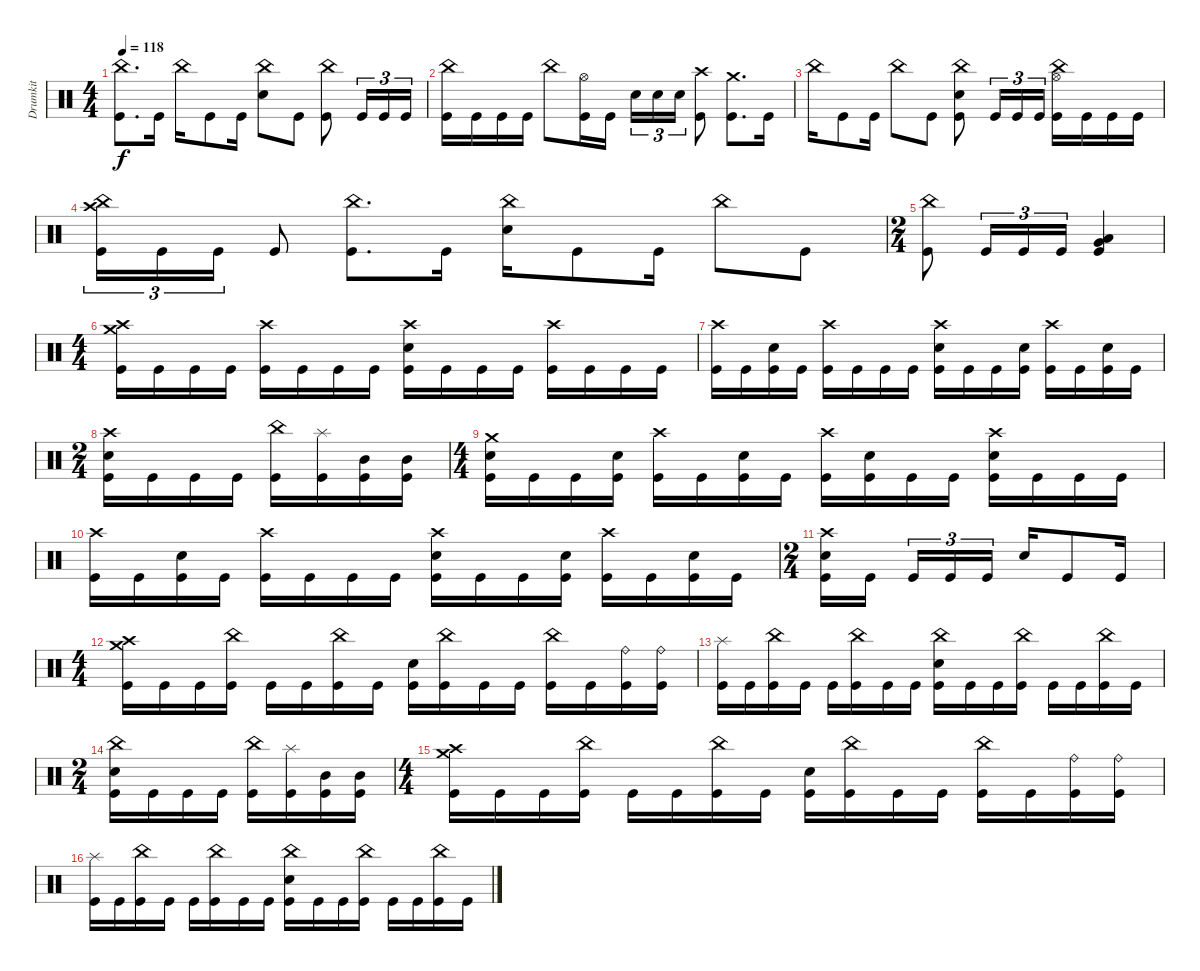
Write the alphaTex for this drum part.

\track ("Drumkit" "Drumkit") {instrument percussion}
\staff {score}
\articulation defaults
\ts (4 4)
\tempo 118
\clef neutral
\ks c
("China (hit)" "Kick (hit)").8{d dy f} "Kick (hit)".16 "China (hit)".16 "Kick (hit)".8 "Kick (hit)".16 ("China (hit)" "Snare (hit) 2").8 "Kick (hit)".8 ("China (hit)" "Kick (hit)").8 "Kick (hit)".16{tu (3 2)} "Kick (hit)".16{tu (3 2)} "Kick (hit)".16{tu (3 2)} |
("China (hit)" "Kick (hit)").16 "Kick (hit)".16 "Kick (hit)".16 "Kick (hit)".16 "China (hit)".8 ("Hi-Hat (open)" "Kick (hit)").16 "Kick (hit)".16 "Snare (hit) 2".16{tu (3 2)} "Snare (hit) 2".16{tu (3 2)} "Snare (hit) 2".16{tu (3 2)} ("Crash high (hit)" "Kick (hit)").8 ("Crash medium (hit)" "Kick (hit)").8{d} "Kick (hit)".16 |
"China (hit)".16 "Kick (hit)".8 "Kick (hit)".16 "China (hit)".8 "Kick (hit)".8 ("China (hit)" "Snare (hit) 2" "Kick (hit)").8 "Kick (hit)".16{tu (3 2)} "Kick (hit)".16{tu (3 2)} "Kick (hit)".16{tu (3 2)} ("China (hit)" "Hi-Hat (open)" "Kick (hit)").16 "Kick (hit)".16 "Kick (hit)".16 "Kick (hit)".16 |
("Crash high (hit)" "China (hit)" "Kick (hit)").16{tu (3 2)} "Kick (hit)".16{tu (3 2)} "Kick (hit)".16{tu (3 2)} "Kick (hit)".8 ("China (hit)" "Kick (hit)").8{d} "Kick (hit)".16 ("China (hit)" "Snare (hit) 2").16 "Kick (hit)".8 "Kick (hit)".16 "China (hit)".8 "Kick (hit)".8 |
\ts (2 4)
("China (hit)" "Kick (hit)").8 "Kick (hit)".16{tu (3 2)} "Kick (hit)".16{tu (3 2)} "Kick (hit)".16{tu (3 2)} ("Kick (hit)" "Very Low Tom (hit)" "Low Tom (hit)").4 |
\ts (4 4)
("Kick (hit)" "Crash medium (hit)" "Crash high (hit)").16 "Kick (hit)".16 "Kick (hit)".16 "Kick (hit)".16 ("Kick (hit)" "Crash high (hit)").16 "Kick (hit)".16 "Kick (hit)".16 "Kick (hit)".16 ("Kick (hit)" "Crash high (hit)" "Snare (hit) 2").16 "Kick (hit)".16 "Kick (hit)".16 "Kick (hit)".16 ("Kick (hit)" "Crash high (hit)").16 "Kick (hit)".16 "Kick (hit)".16 "Kick (hit)".16 |
("Kick (hit)" "Crash high (hit)").16 "Kick (hit)".16 ("Kick (hit)" "Snare (hit) 2").16 "Kick (hit)".16 ("Kick (hit)" "Crash high (hit)").16 "Kick (hit)".16 "Kick (hit)".16 "Kick (hit)".16 ("Kick (hit)" "Snare (hit) 2" "Crash high (hit)").16 "Kick (hit)".16 "Kick (hit)".16 ("Kick (hit)" "Snare (hit) 2").16 ("Kick (hit)" "Crash high (hit)").16 "Kick (hit)".16 ("Kick (hit)" "Snare (hit) 2").16 "Kick (hit)".16 |
\ts (2 4)
("Kick (hit)" "Snare (hit) 2" "Crash high (hit)").16 "Kick (hit)".16 "Kick (hit)".16 "Kick (hit)".16 ("Kick (hit)" "China (hit)").16 ("Kick (hit)" "Splash (hit)").16 ("Kick (hit)" "Mid Tom (hit)").16 ("Kick (hit)" "Mid Tom (hit)").16 |
\ts (4 4)
("Kick (hit)" "Crash medium (hit)" "Snare (hit) 2").16 "Kick (hit)".16 "Kick (hit)".16 ("Kick (hit)" "Snare (hit) 2").16 ("Kick (hit)" "Crash high (hit)").16 "Kick (hit)".16 ("Kick (hit)" "Snare (hit) 2").16 "Kick (hit)".16 ("Kick (hit)" "Crash high (hit)").16 ("Kick (hit)" "Snare (hit) 2").16 "Kick (hit)".16 "Kick (hit)".16 ("Kick (hit)" "Snare (hit) 2" "Crash high (hit)").16 "Kick (hit)".16 "Kick (hit)".16 "Kick (hit)".16 |
("Kick (hit)" "Crash high (hit)").16 "Kick (hit)".16 ("Kick (hit)" "Snare (hit) 2").16 "Kick (hit)".16 ("Kick (hit)" "Crash high (hit)").16 "Kick (hit)".16 "Kick (hit)".16 "Kick (hit)".16 ("Kick (hit)" "Snare (hit) 2" "Crash high (hit)").16 "Kick (hit)".16 "Kick (hit)".16 ("Kick (hit)" "Snare (hit) 2").16 ("Kick (hit)" "Crash high (hit)").16 "Kick (hit)".16 ("Kick (hit)" "Snare (hit) 2").16 "Kick (hit)".16 |
\ts (2 4)
("Kick (hit)" "Snare (hit) 2" "Crash high (hit)").16 "Kick (hit)".16 "Kick (hit)".16{tu (3 2)} "Kick (hit)".16{tu (3 2)} "Kick (hit)".16{tu (3 2)} "Snare (hit) 2".16 "Kick (hit)".8 "Kick (hit)".16 |
\ts (4 4)
("Kick (hit)" "Crash high (hit)" "Crash medium (hit)").16 "Kick (hit)".16 "Kick (hit)".16 ("Kick (hit)" "China (hit)").16 "Kick (hit)".16 "Kick (hit)".16 ("Kick (hit)" "China (hit)").16 "Kick (hit)".16 ("Kick (hit)" "Snare (hit) 2").16 ("Kick (hit)" "China (hit)").16 "Kick (hit)".16 "Kick (hit)".16 ("Kick (hit)" "China (hit)").16 "Kick (hit)".16 ("Kick (hit)" "Ride (bell)").16 ("Kick (hit)" "Ride (bell)").16 |
("Kick (hit)" "Splash (hit)").16 "Kick (hit)".16 ("Kick (hit)" "China (hit)").16 "Kick (hit)".16 "Kick (hit)".16 ("Kick (hit)" "China (hit)").16 "Kick (hit)".16 "Kick (hit)".16 ("Kick (hit)" "China (hit)" "Snare (hit) 2").16 "Kick (hit)".16 "Kick (hit)".16 ("Kick (hit)" "China (hit)").16 "Kick (hit)".16 "Kick (hit)".16 ("Kick (hit)" "China (hit)").16 "Kick (hit)".16 |
\ts (2 4)
("Kick (hit)" "China (hit)" "Snare (hit) 2").16 "Kick (hit)".16 "Kick (hit)".16 "Kick (hit)".16 ("Kick (hit)" "China (hit)").16 ("Kick (hit)" "Splash (hit)").16 ("Kick (hit)" "Mid Tom (hit)").16 ("Kick (hit)" "Mid Tom (hit)").16 |
\ts (4 4)
("Kick (hit)" "Crash high (hit)" "Crash medium (hit)").16 "Kick (hit)".16 "Kick (hit)".16 ("Kick (hit)" "China (hit)").16 "Kick (hit)".16 "Kick (hit)".16 ("Kick (hit)" "China (hit)").16 "Kick (hit)".16 ("Kick (hit)" "Snare (hit) 2").16 ("Kick (hit)" "China (hit)").16 "Kick (hit)".16 "Kick (hit)".16 ("Kick (hit)" "China (hit)").16 "Kick (hit)".16 ("Kick (hit)" "Ride (bell)").16 ("Kick (hit)" "Ride (bell)").16 |
("Kick (hit)" "Splash (hit)").16 "Kick (hit)".16 ("Kick (hit)" "China (hit)").16 "Kick (hit)".16 "Kick (hit)".16 ("Kick (hit)" "China (hit)").16 "Kick (hit)".16 "Kick (hit)".16 ("Kick (hit)" "China (hit)" "Snare (hit) 2").16 "Kick (hit)".16 "Kick (hit)".16 ("Kick (hit)" "China (hit)").16 "Kick (hit)".16 "Kick (hit)".16 ("Kick (hit)" "China (hit)").16 "Kick (hit)".16
